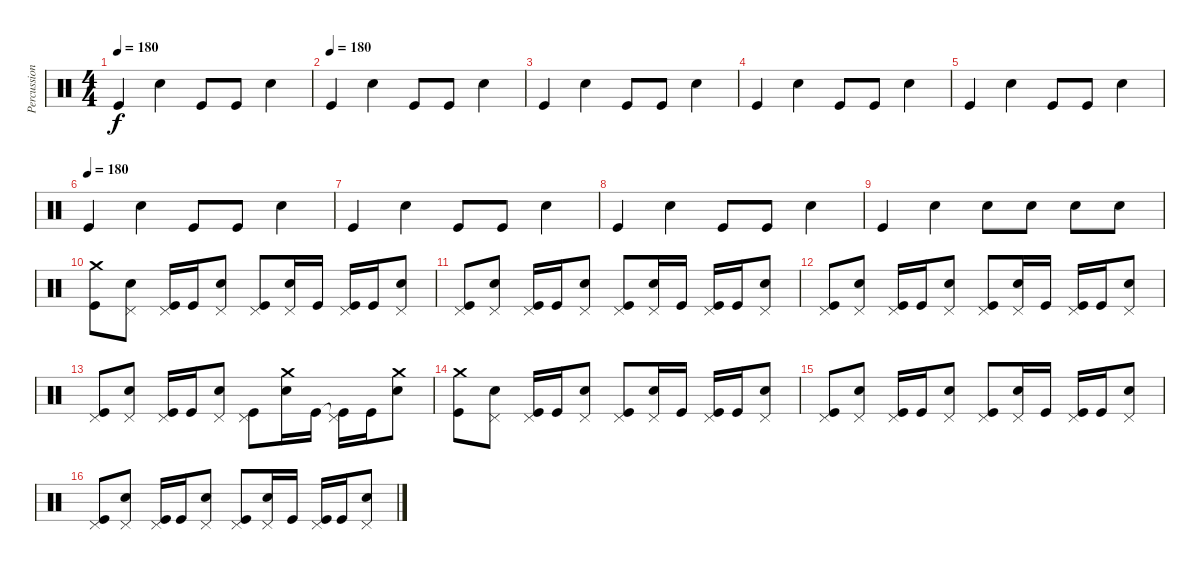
\track ("Percussion" "Percussion") {instrument percussion}
\staff {score}
\articulation defaults
\ts (4 4)
\tempo 180
\clef neutral
\ks c "Kick (hit)".4{dy f volume 10} "Snare (hit) 2".4 "Kick (hit)".8 "Kick (hit)".8 "Snare (hit) 2".4
|
\tempo (180)
"Kick (hit)".4{volume 10} "Snare (hit) 2".4 "Kick (hit)".8 "Kick (hit)".8 "Snare (hit) 2".4 |
"Kick (hit)".4{volume 10} "Snare (hit) 2".4 "Kick (hit)".8 "Kick (hit)".8 "Snare (hit) 2".4 |
"Kick (hit)".4{volume 10} "Snare (hit) 2".4 "Kick (hit)".8 "Kick (hit)".8 "Snare (hit) 2".4 |
"Kick (hit)".4{volume 10} "Snare (hit) 2".4 "Kick (hit)".8 "Kick (hit)".8 "Snare (hit) 2".4 |
\tempo (180)
"Kick (hit)".4{volume 10} "Snare (hit) 2".4 "Kick (hit)".8 "Kick (hit)".8 "Snare (hit) 2".4 |
"Kick (hit)".4{volume 10} "Snare (hit) 2".4 "Kick (hit)".8 "Kick (hit)".8 "Snare (hit) 2".4 |
"Kick (hit)".4{volume 11} "Snare (hit) 2".4 "Kick (hit)".8 "Kick (hit)".8 "Snare (hit) 2".4 |
"Kick (hit)".4{volume 13} "Snare (hit) 2".4 "Snare (hit) 2".8 "Snare (hit) 2".8 "Snare (hit) 2".8 "Snare (hit) 2".8 |
("Crash medium (hit)" "Kick (hit)").8 ("Pedal Hi-Hat (hit)" "Snare (hit) 2").8 ("Pedal Hi-Hat (hit)" "Kick (hit)").16 "Kick (hit)".16 ("Pedal Hi-Hat (hit)" "Snare (hit) 2").8 ("Pedal Hi-Hat (hit)" "Kick (hit)").8 ("Pedal Hi-Hat (hit)" "Snare (hit) 2").16 "Kick (hit)".16 ("Pedal Hi-Hat (hit)" "Kick (hit)").16 "Kick (hit)".16 ("Pedal Hi-Hat (hit)" "Snare (hit) 2").8 |
("Pedal Hi-Hat (hit)" "Kick (hit)").8 ("Pedal Hi-Hat (hit)" "Snare (hit) 2").8 ("Pedal Hi-Hat (hit)" "Kick (hit)").16 "Kick (hit)".16 ("Pedal Hi-Hat (hit)" "Snare (hit) 2").8 ("Pedal Hi-Hat (hit)" "Kick (hit)").8 ("Pedal Hi-Hat (hit)" "Snare (hit) 2").16 "Kick (hit)".16 ("Pedal Hi-Hat (hit)" "Kick (hit)").16 "Kick (hit)".16 ("Pedal Hi-Hat (hit)" "Snare (hit) 2").8 |
("Pedal Hi-Hat (hit)" "Kick (hit)").8 ("Pedal Hi-Hat (hit)" "Snare (hit) 2").8 ("Pedal Hi-Hat (hit)" "Kick (hit)").16 "Kick (hit)".16 ("Pedal Hi-Hat (hit)" "Snare (hit) 2").8 ("Pedal Hi-Hat (hit)" "Kick (hit)").8 ("Pedal Hi-Hat (hit)" "Snare (hit) 2").16 "Kick (hit)".16 ("Pedal Hi-Hat (hit)" "Kick (hit)").16 "Kick (hit)".16 ("Pedal Hi-Hat (hit)" "Snare (hit) 2").8 |
("Pedal Hi-Hat (hit)" "Kick (hit)").8 ("Pedal Hi-Hat (hit)" "Snare (hit) 2").8 ("Pedal Hi-Hat (hit)" "Kick (hit)").16 "Kick (hit)".16 ("Pedal Hi-Hat (hit)" "Snare (hit) 2").8 ("Pedal Hi-Hat (hit)" "Kick (hit)").8 ("Crash medium (hit)" "Snare (hit) 2").16 "Kick (hit)".16 ("Pedal Hi-Hat (hit)"{t} "Kick (hit)").16 "Kick (hit)".16 ("Crash medium (hit)" "Snare (hit) 2").8 |
("Crash medium (hit)" "Kick (hit)").8 ("Pedal Hi-Hat (hit)" "Snare (hit) 2").8 ("Pedal Hi-Hat (hit)" "Kick (hit)").16 "Kick (hit)".16 ("Pedal Hi-Hat (hit)" "Snare (hit) 2").8 ("Pedal Hi-Hat (hit)" "Kick (hit)").8 ("Pedal Hi-Hat (hit)" "Snare (hit) 2").16 "Kick (hit)".16 ("Pedal Hi-Hat (hit)" "Kick (hit)").16 "Kick (hit)".16 ("Pedal Hi-Hat (hit)" "Snare (hit) 2").8 |
("Pedal Hi-Hat (hit)" "Kick (hit)").8 ("Pedal Hi-Hat (hit)" "Snare (hit) 2").8 ("Pedal Hi-Hat (hit)" "Kick (hit)").16 "Kick (hit)".16 ("Pedal Hi-Hat (hit)" "Snare (hit) 2").8 ("Pedal Hi-Hat (hit)" "Kick (hit)").8 ("Pedal Hi-Hat (hit)" "Snare (hit) 2").16 "Kick (hit)".16 ("Pedal Hi-Hat (hit)" "Kick (hit)").16 "Kick (hit)".16 ("Pedal Hi-Hat (hit)" "Snare (hit) 2").8 |
("Pedal Hi-Hat (hit)" "Kick (hit)").8 ("Pedal Hi-Hat (hit)" "Snare (hit) 2").8 ("Pedal Hi-Hat (hit)" "Kick (hit)").16 "Kick (hit)".16 ("Pedal Hi-Hat (hit)" "Snare (hit) 2").8 ("Pedal Hi-Hat (hit)" "Kick (hit)").8 ("Pedal Hi-Hat (hit)" "Snare (hit) 2").16 "Kick (hit)".16 ("Pedal Hi-Hat (hit)" "Kick (hit)").16 "Kick (hit)".16 ("Pedal Hi-Hat (hit)" "Snare (hit) 2").8
